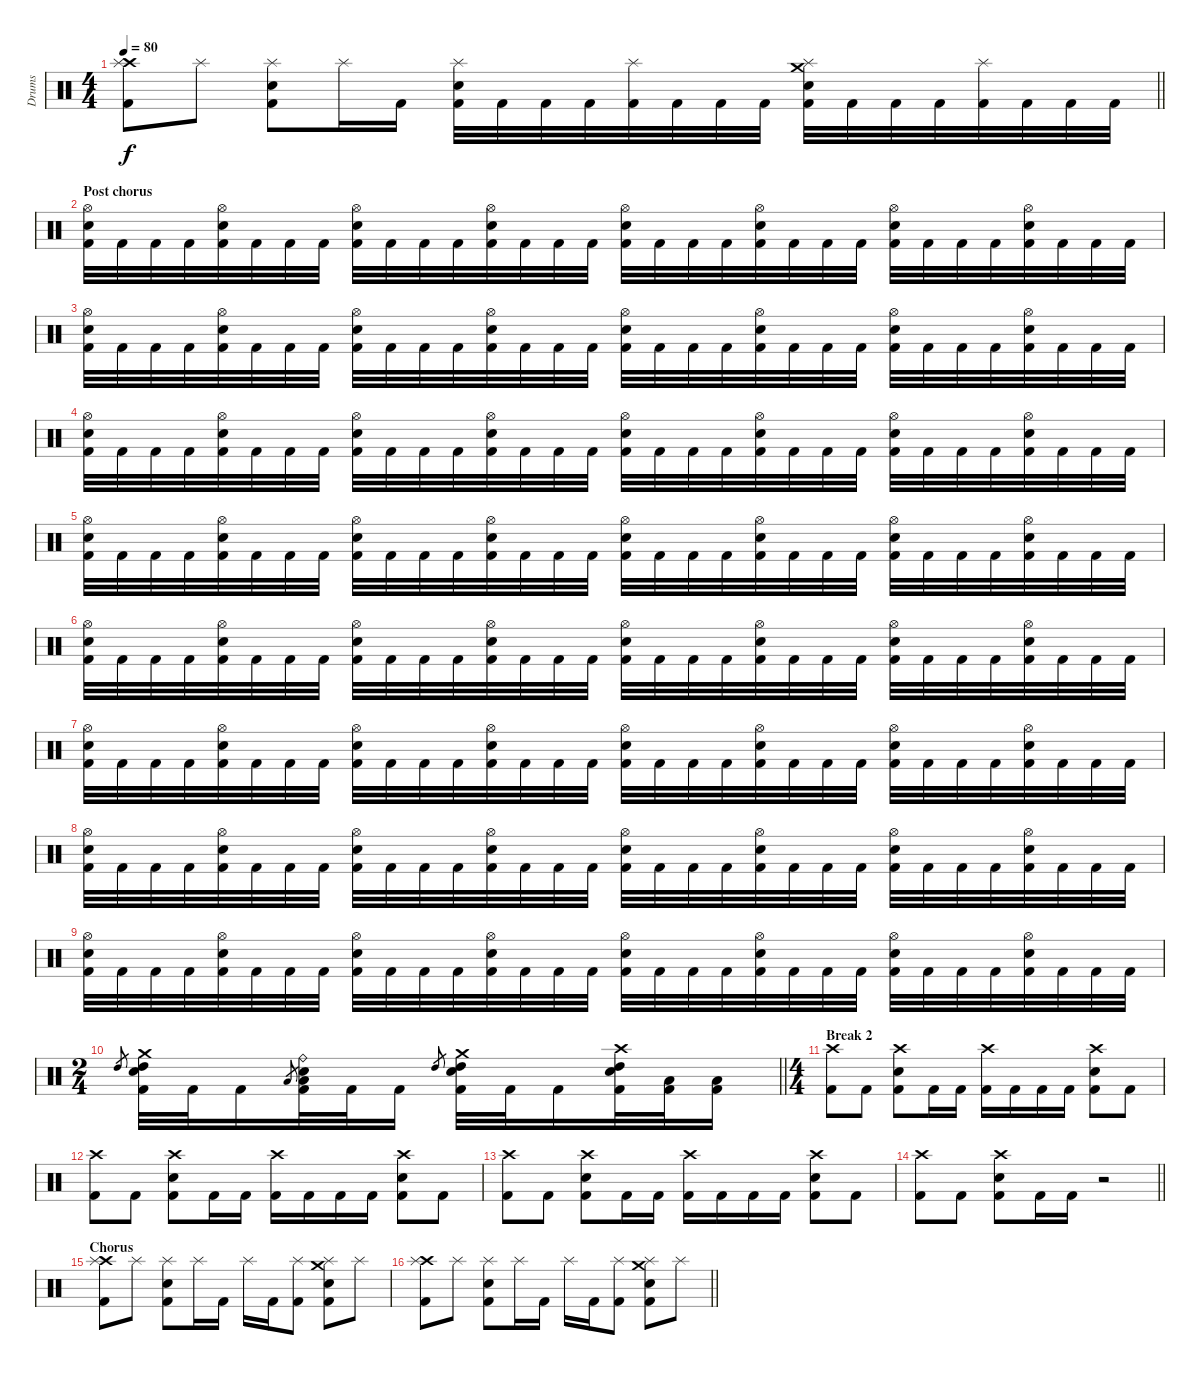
\track ("Drums" "Drums") {instrument percussion}
\staff {score}
\articulation defaults
\ts (4 4)
\tempo 80
\clef neutral
\barLineRight lightlight
\ks c
("Crash high (hit)" "Splash (hit)" "Kick (hit) 2").8{dy f} "Splash (hit)".8 ("Splash (hit)" "Electric Snare (hit)" "Kick (hit) 2").8 "Splash (hit)".16 "Kick (hit) 2".16 ("Splash (hit)" "Electric Snare (hit)" "Kick (hit) 2").32 "Kick (hit) 2".32 "Kick (hit) 2".32 "Kick (hit) 2".32 ("Splash (hit)" "Kick (hit) 2").32 "Kick (hit) 2".32 "Kick (hit) 2".32 "Kick (hit) 2".32 ("Crash medium (hit)" "Splash (hit)" "Electric Snare (hit)" "Kick (hit) 2").32 "Kick (hit) 2".32 "Kick (hit) 2".32 "Kick (hit) 2".32 ("Splash (hit)" "Kick (hit) 2").32 "Kick (hit) 2".32 "Kick (hit) 2".32 "Kick (hit) 2".32 |
\section ("" "Post chorus")
("Hi-Hat (open)" "Electric Snare (hit)" "Kick (hit) 2").32 "Kick (hit) 2".32 "Kick (hit) 2".32 "Kick (hit) 2".32 ("Hi-Hat (open)" "Electric Snare (hit)" "Kick (hit) 2").32 "Kick (hit) 2".32 "Kick (hit) 2".32 "Kick (hit) 2".32 ("Hi-Hat (open)" "Electric Snare (hit)" "Kick (hit) 2").32 "Kick (hit) 2".32 "Kick (hit) 2".32 "Kick (hit) 2".32 ("Hi-Hat (open)" "Electric Snare (hit)" "Kick (hit) 2").32 "Kick (hit) 2".32 "Kick (hit) 2".32 "Kick (hit) 2".32 ("Hi-Hat (open)" "Electric Snare (hit)" "Kick (hit) 2").32 "Kick (hit) 2".32 "Kick (hit) 2".32 "Kick (hit) 2".32 ("Hi-Hat (open)" "Electric Snare (hit)" "Kick (hit) 2").32 "Kick (hit) 2".32 "Kick (hit) 2".32 "Kick (hit) 2".32 ("Hi-Hat (open)" "Electric Snare (hit)" "Kick (hit) 2").32 "Kick (hit) 2".32 "Kick (hit) 2".32 "Kick (hit) 2".32 ("Hi-Hat (open)" "Electric Snare (hit)" "Kick (hit) 2").32 "Kick (hit) 2".32 "Kick (hit) 2".32 "Kick (hit) 2".32 |
("Hi-Hat (open)" "Electric Snare (hit)" "Kick (hit) 2").32 "Kick (hit) 2".32 "Kick (hit) 2".32 "Kick (hit) 2".32 ("Hi-Hat (open)" "Electric Snare (hit)" "Kick (hit) 2").32 "Kick (hit) 2".32 "Kick (hit) 2".32 "Kick (hit) 2".32 ("Hi-Hat (open)" "Electric Snare (hit)" "Kick (hit) 2").32 "Kick (hit) 2".32 "Kick (hit) 2".32 "Kick (hit) 2".32 ("Hi-Hat (open)" "Electric Snare (hit)" "Kick (hit) 2").32 "Kick (hit) 2".32 "Kick (hit) 2".32 "Kick (hit) 2".32 ("Hi-Hat (open)" "Electric Snare (hit)" "Kick (hit) 2").32 "Kick (hit) 2".32 "Kick (hit) 2".32 "Kick (hit) 2".32 ("Hi-Hat (open)" "Electric Snare (hit)" "Kick (hit) 2").32 "Kick (hit) 2".32 "Kick (hit) 2".32 "Kick (hit) 2".32 ("Hi-Hat (open)" "Electric Snare (hit)" "Kick (hit) 2").32 "Kick (hit) 2".32 "Kick (hit) 2".32 "Kick (hit) 2".32 ("Hi-Hat (open)" "Electric Snare (hit)" "Kick (hit) 2").32 "Kick (hit) 2".32 "Kick (hit) 2".32 "Kick (hit) 2".32 |
("Hi-Hat (open)" "Electric Snare (hit)" "Kick (hit) 2").32 "Kick (hit) 2".32 "Kick (hit) 2".32 "Kick (hit) 2".32 ("Hi-Hat (open)" "Electric Snare (hit)" "Kick (hit) 2").32 "Kick (hit) 2".32 "Kick (hit) 2".32 "Kick (hit) 2".32 ("Hi-Hat (open)" "Electric Snare (hit)" "Kick (hit) 2").32 "Kick (hit) 2".32 "Kick (hit) 2".32 "Kick (hit) 2".32 ("Hi-Hat (open)" "Electric Snare (hit)" "Kick (hit) 2").32 "Kick (hit) 2".32 "Kick (hit) 2".32 "Kick (hit) 2".32 ("Hi-Hat (open)" "Electric Snare (hit)" "Kick (hit) 2").32 "Kick (hit) 2".32 "Kick (hit) 2".32 "Kick (hit) 2".32 ("Hi-Hat (open)" "Electric Snare (hit)" "Kick (hit) 2").32 "Kick (hit) 2".32 "Kick (hit) 2".32 "Kick (hit) 2".32 ("Hi-Hat (open)" "Electric Snare (hit)" "Kick (hit) 2").32 "Kick (hit) 2".32 "Kick (hit) 2".32 "Kick (hit) 2".32 ("Hi-Hat (open)" "Electric Snare (hit)" "Kick (hit) 2").32 "Kick (hit) 2".32 "Kick (hit) 2".32 "Kick (hit) 2".32 |
("Hi-Hat (open)" "Electric Snare (hit)" "Kick (hit) 2").32 "Kick (hit) 2".32 "Kick (hit) 2".32 "Kick (hit) 2".32 ("Hi-Hat (open)" "Electric Snare (hit)" "Kick (hit) 2").32 "Kick (hit) 2".32 "Kick (hit) 2".32 "Kick (hit) 2".32 ("Hi-Hat (open)" "Electric Snare (hit)" "Kick (hit) 2").32 "Kick (hit) 2".32 "Kick (hit) 2".32 "Kick (hit) 2".32 ("Hi-Hat (open)" "Electric Snare (hit)" "Kick (hit) 2").32 "Kick (hit) 2".32 "Kick (hit) 2".32 "Kick (hit) 2".32 ("Hi-Hat (open)" "Electric Snare (hit)" "Kick (hit) 2").32 "Kick (hit) 2".32 "Kick (hit) 2".32 "Kick (hit) 2".32 ("Hi-Hat (open)" "Electric Snare (hit)" "Kick (hit) 2").32 "Kick (hit) 2".32 "Kick (hit) 2".32 "Kick (hit) 2".32 ("Hi-Hat (open)" "Electric Snare (hit)" "Kick (hit) 2").32 "Kick (hit) 2".32 "Kick (hit) 2".32 "Kick (hit) 2".32 ("Hi-Hat (open)" "Electric Snare (hit)" "Kick (hit) 2").32 "Kick (hit) 2".32 "Kick (hit) 2".32 "Kick (hit) 2".32 |
("Hi-Hat (open)" "Electric Snare (hit)" "Kick (hit) 2").32 "Kick (hit) 2".32 "Kick (hit) 2".32 "Kick (hit) 2".32 ("Hi-Hat (open)" "Electric Snare (hit)" "Kick (hit) 2").32 "Kick (hit) 2".32 "Kick (hit) 2".32 "Kick (hit) 2".32 ("Hi-Hat (open)" "Electric Snare (hit)" "Kick (hit) 2").32 "Kick (hit) 2".32 "Kick (hit) 2".32 "Kick (hit) 2".32 ("Hi-Hat (open)" "Electric Snare (hit)" "Kick (hit) 2").32 "Kick (hit) 2".32 "Kick (hit) 2".32 "Kick (hit) 2".32 ("Hi-Hat (open)" "Electric Snare (hit)" "Kick (hit) 2").32 "Kick (hit) 2".32 "Kick (hit) 2".32 "Kick (hit) 2".32 ("Hi-Hat (open)" "Electric Snare (hit)" "Kick (hit) 2").32 "Kick (hit) 2".32 "Kick (hit) 2".32 "Kick (hit) 2".32 ("Hi-Hat (open)" "Electric Snare (hit)" "Kick (hit) 2").32 "Kick (hit) 2".32 "Kick (hit) 2".32 "Kick (hit) 2".32 ("Hi-Hat (open)" "Electric Snare (hit)" "Kick (hit) 2").32 "Kick (hit) 2".32 "Kick (hit) 2".32 "Kick (hit) 2".32 |
("Hi-Hat (open)" "Electric Snare (hit)" "Kick (hit) 2").32 "Kick (hit) 2".32 "Kick (hit) 2".32 "Kick (hit) 2".32 ("Hi-Hat (open)" "Electric Snare (hit)" "Kick (hit) 2").32 "Kick (hit) 2".32 "Kick (hit) 2".32 "Kick (hit) 2".32 ("Hi-Hat (open)" "Electric Snare (hit)" "Kick (hit) 2").32 "Kick (hit) 2".32 "Kick (hit) 2".32 "Kick (hit) 2".32 ("Hi-Hat (open)" "Electric Snare (hit)" "Kick (hit) 2").32 "Kick (hit) 2".32 "Kick (hit) 2".32 "Kick (hit) 2".32 ("Hi-Hat (open)" "Electric Snare (hit)" "Kick (hit) 2").32 "Kick (hit) 2".32 "Kick (hit) 2".32 "Kick (hit) 2".32 ("Hi-Hat (open)" "Electric Snare (hit)" "Kick (hit) 2").32 "Kick (hit) 2".32 "Kick (hit) 2".32 "Kick (hit) 2".32 ("Hi-Hat (open)" "Electric Snare (hit)" "Kick (hit) 2").32 "Kick (hit) 2".32 "Kick (hit) 2".32 "Kick (hit) 2".32 ("Hi-Hat (open)" "Electric Snare (hit)" "Kick (hit) 2").32 "Kick (hit) 2".32 "Kick (hit) 2".32 "Kick (hit) 2".32 |
("Hi-Hat (open)" "Electric Snare (hit)" "Kick (hit) 2").32 "Kick (hit) 2".32 "Kick (hit) 2".32 "Kick (hit) 2".32 ("Hi-Hat (open)" "Electric Snare (hit)" "Kick (hit) 2").32 "Kick (hit) 2".32 "Kick (hit) 2".32 "Kick (hit) 2".32 ("Hi-Hat (open)" "Electric Snare (hit)" "Kick (hit) 2").32 "Kick (hit) 2".32 "Kick (hit) 2".32 "Kick (hit) 2".32 ("Hi-Hat (open)" "Electric Snare (hit)" "Kick (hit) 2").32 "Kick (hit) 2".32 "Kick (hit) 2".32 "Kick (hit) 2".32 ("Hi-Hat (open)" "Electric Snare (hit)" "Kick (hit) 2").32 "Kick (hit) 2".32 "Kick (hit) 2".32 "Kick (hit) 2".32 ("Hi-Hat (open)" "Electric Snare (hit)" "Kick (hit) 2").32 "Kick (hit) 2".32 "Kick (hit) 2".32 "Kick (hit) 2".32 ("Hi-Hat (open)" "Electric Snare (hit)" "Kick (hit) 2").32 "Kick (hit) 2".32 "Kick (hit) 2".32 "Kick (hit) 2".32 ("Hi-Hat (open)" "Electric Snare (hit)" "Kick (hit) 2").32 "Kick (hit) 2".32 "Kick (hit) 2".32 "Kick (hit) 2".32 |
("Hi-Hat (open)" "Electric Snare (hit)" "Kick (hit) 2").32 "Kick (hit) 2".32 "Kick (hit) 2".32 "Kick (hit) 2".32 ("Hi-Hat (open)" "Electric Snare (hit)" "Kick (hit) 2").32 "Kick (hit) 2".32 "Kick (hit) 2".32 "Kick (hit) 2".32 ("Hi-Hat (open)" "Electric Snare (hit)" "Kick (hit) 2").32 "Kick (hit) 2".32 "Kick (hit) 2".32 "Kick (hit) 2".32 ("Hi-Hat (open)" "Electric Snare (hit)" "Kick (hit) 2").32 "Kick (hit) 2".32 "Kick (hit) 2".32 "Kick (hit) 2".32 ("Hi-Hat (open)" "Electric Snare (hit)" "Kick (hit) 2").32 "Kick (hit) 2".32 "Kick (hit) 2".32 "Kick (hit) 2".32 ("Hi-Hat (open)" "Electric Snare (hit)" "Kick (hit) 2").32 "Kick (hit) 2".32 "Kick (hit) 2".32 "Kick (hit) 2".32 ("Hi-Hat (open)" "Electric Snare (hit)" "Kick (hit) 2").32 "Kick (hit) 2".32 "Kick (hit) 2".32 "Kick (hit) 2".32 ("Hi-Hat (open)" "Electric Snare (hit)" "Kick (hit) 2").32 "Kick (hit) 2".32 "Kick (hit) 2".32 "Kick (hit) 2".32 |
\ts (2 4)
\barLineRight lightlight "High Tom (hit)".8{gr}
("Crash medium (hit)" "High Tom (hit)" "Electric Snare (hit)" "Kick (hit) 2").32 "Kick (hit) 2".32 "Kick (hit) 2".16 "Low Tom (hit)".8{gr} ("Ride (bell)" "Low Tom (hit)" "Electric Snare (hit)" "Kick (hit) 2").32 "Kick (hit) 2".32 "Kick (hit) 2".16 "High Tom (hit)".8{gr} ("Crash medium (hit)" "High Tom (hit)" "Electric Snare (hit)" "Kick (hit) 2").32 "Kick (hit) 2".32 "Kick (hit) 2".16 ("Crash high (hit)" "High Tom (hit)" "Electric Snare (hit)" "Kick (hit) 2").32 ("Low Tom (hit)" "Kick (hit) 2").32 ("Low Tom (hit)" "Kick (hit) 2").16 |
\ts (4 4)
\section ("" "Break 2")
("Crash high (hit)" "Kick (hit) 2").8 "Kick (hit) 2".8 ("Crash high (hit)" "Electric Snare (hit)" "Kick (hit) 2").8 "Kick (hit) 2".16 "Kick (hit) 2".16 ("Crash high (hit)" "Kick (hit) 2").16 "Kick (hit) 2".16 "Kick (hit) 2".16 "Kick (hit) 2".16 ("Crash high (hit)" "Electric Snare (hit)" "Kick (hit) 2").8 "Kick (hit) 2".8 |
("Crash high (hit)" "Kick (hit) 2").8 "Kick (hit) 2".8 ("Crash high (hit)" "Electric Snare (hit)" "Kick (hit) 2").8 "Kick (hit) 2".16 "Kick (hit) 2".16 ("Crash high (hit)" "Kick (hit) 2").16 "Kick (hit) 2".16 "Kick (hit) 2".16 "Kick (hit) 2".16 ("Crash high (hit)" "Electric Snare (hit)" "Kick (hit) 2").8 "Kick (hit) 2".8 |
("Crash high (hit)" "Kick (hit) 2").8 "Kick (hit) 2".8 ("Crash high (hit)" "Electric Snare (hit)" "Kick (hit) 2").8 "Kick (hit) 2".16 "Kick (hit) 2".16 ("Crash high (hit)" "Kick (hit) 2").16 "Kick (hit) 2".16 "Kick (hit) 2".16 "Kick (hit) 2".16 ("Crash high (hit)" "Electric Snare (hit)" "Kick (hit) 2").8 "Kick (hit) 2".8 |
\barLineRight lightlight
("Crash high (hit)" "Kick (hit) 2").8 "Kick (hit) 2".8 ("Crash high (hit)" "Electric Snare (hit)" "Kick (hit) 2").8 "Kick (hit) 2".16 "Kick (hit) 2".16 r.2 |
\section ("" "Chorus")
("Crash high (hit)" "Splash (hit)" "Kick (hit) 2").8 "Splash (hit)".8 ("Splash (hit)" "Electric Snare (hit)" "Kick (hit) 2").8 "Splash (hit)".16 "Kick (hit) 2".16 "Splash (hit)".16 "Kick (hit) 2".16 ("Splash (hit)" "Kick (hit) 2").8 ("Crash medium (hit)" "Splash (hit)" "Electric Snare (hit)" "Kick (hit) 2").8 "Splash (hit)".8 |
\barLineRight lightlight
("Crash high (hit)" "Splash (hit)" "Kick (hit) 2").8 "Splash (hit)".8 ("Splash (hit)" "Electric Snare (hit)" "Kick (hit) 2").8 "Splash (hit)".16 "Kick (hit) 2".16 "Splash (hit)".16 "Kick (hit) 2".16 ("Splash (hit)" "Kick (hit) 2").8 ("Crash medium (hit)" "Splash (hit)" "Electric Snare (hit)" "Kick (hit) 2").8 "Splash (hit)".8
